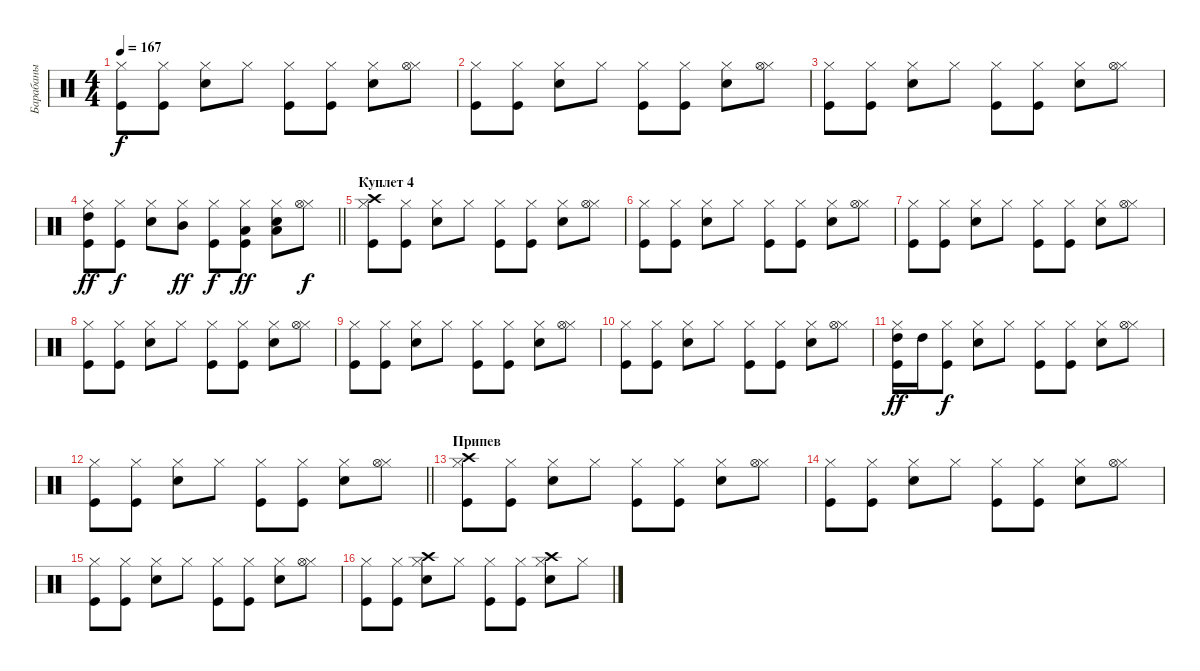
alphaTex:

\track ("Барабаны" "Барабаны") {instrument percussion}
\staff {score}
\articulation defaults
\ts (4 4)
\tempo 167
\clef neutral
\ks c
("Kick (hit)" "Hi-Hat (closed)").8{dy f} ("Kick (hit)" "Hi-Hat (closed)").8 ("Snare (hit) 2" "Hi-Hat (closed)").8 "Hi-Hat (closed)".8 ("Kick (hit)" "Hi-Hat (closed)").8 ("Kick (hit)" "Hi-Hat (closed)").8 ("Snare (hit) 2" "Hi-Hat (closed)").8 ("Hi-Hat (closed)" "Hi-Hat (open)").8 |
("Kick (hit)" "Hi-Hat (closed)").8 ("Kick (hit)" "Hi-Hat (closed)").8 ("Snare (hit) 2" "Hi-Hat (closed)").8 "Hi-Hat (closed)".8 ("Kick (hit)" "Hi-Hat (closed)").8 ("Kick (hit)" "Hi-Hat (closed)").8 ("Snare (hit) 2" "Hi-Hat (closed)").8 ("Hi-Hat (closed)" "Hi-Hat (open)").8 |
("Kick (hit)" "Hi-Hat (closed)").8 ("Kick (hit)" "Hi-Hat (closed)").8 ("Snare (hit) 2" "Hi-Hat (closed)").8 "Hi-Hat (closed)".8 ("Kick (hit)" "Hi-Hat (closed)").8 ("Kick (hit)" "Hi-Hat (closed)").8 ("Snare (hit) 2" "Hi-Hat (closed)").8 ("Hi-Hat (closed)" "Hi-Hat (open)").8 |
\barLineRight lightlight
("Kick (hit)" "Hi-Hat (closed)" "High Tom (hit)").8{dy ff} ("Kick (hit)" "Hi-Hat (closed)").8{dy f} ("Snare (hit) 2" "Hi-Hat (closed)").8 ("Hi-Hat (closed)" "Mid Tom (hit)").8{dy ff} ("Kick (hit)" "Hi-Hat (closed)").8{dy f} ("Kick (hit)" "Hi-Hat (closed)" "Low Tom (hit)").8{dy ff} ("Snare (hit) 2" "Hi-Hat (closed)" "Low Tom (hit)").8 ("Hi-Hat (closed)" "Hi-Hat (open)").8{dy f} |
\section ("" "Куплет 4")
("Kick (hit)" "Hi-Hat (closed)" "Crash high (hit)").8 ("Kick (hit)" "Hi-Hat (closed)").8 ("Snare (hit) 2" "Hi-Hat (closed)").8 "Hi-Hat (closed)".8 ("Kick (hit)" "Hi-Hat (closed)").8 ("Kick (hit)" "Hi-Hat (closed)").8 ("Snare (hit) 2" "Hi-Hat (closed)").8 ("Hi-Hat (closed)" "Hi-Hat (open)").8 |
("Kick (hit)" "Hi-Hat (closed)").8 ("Kick (hit)" "Hi-Hat (closed)").8 ("Snare (hit) 2" "Hi-Hat (closed)").8 "Hi-Hat (closed)".8 ("Kick (hit)" "Hi-Hat (closed)").8 ("Kick (hit)" "Hi-Hat (closed)").8 ("Snare (hit) 2" "Hi-Hat (closed)").8 ("Hi-Hat (closed)" "Hi-Hat (open)").8 |
("Kick (hit)" "Hi-Hat (closed)").8 ("Kick (hit)" "Hi-Hat (closed)").8 ("Snare (hit) 2" "Hi-Hat (closed)").8 "Hi-Hat (closed)".8 ("Kick (hit)" "Hi-Hat (closed)").8 ("Kick (hit)" "Hi-Hat (closed)").8 ("Snare (hit) 2" "Hi-Hat (closed)").8 ("Hi-Hat (closed)" "Hi-Hat (open)").8 |
("Kick (hit)" "Hi-Hat (closed)").8 ("Kick (hit)" "Hi-Hat (closed)").8 ("Snare (hit) 2" "Hi-Hat (closed)").8 "Hi-Hat (closed)".8 ("Kick (hit)" "Hi-Hat (closed)").8 ("Kick (hit)" "Hi-Hat (closed)").8 ("Snare (hit) 2" "Hi-Hat (closed)").8 ("Hi-Hat (closed)" "Hi-Hat (open)").8 |
("Kick (hit)" "Hi-Hat (closed)").8 ("Kick (hit)" "Hi-Hat (closed)").8 ("Snare (hit) 2" "Hi-Hat (closed)").8 "Hi-Hat (closed)".8 ("Kick (hit)" "Hi-Hat (closed)").8 ("Kick (hit)" "Hi-Hat (closed)").8 ("Snare (hit) 2" "Hi-Hat (closed)").8 ("Hi-Hat (closed)" "Hi-Hat (open)").8 |
("Kick (hit)" "Hi-Hat (closed)").8 ("Kick (hit)" "Hi-Hat (closed)").8 ("Snare (hit) 2" "Hi-Hat (closed)").8 "Hi-Hat (closed)".8 ("Kick (hit)" "Hi-Hat (closed)").8 ("Kick (hit)" "Hi-Hat (closed)").8 ("Snare (hit) 2" "Hi-Hat (closed)").8 ("Hi-Hat (closed)" "Hi-Hat (open)").8 |
("Kick (hit)" "Hi-Hat (closed)" "High Tom (hit)").16{dy ff} "High Tom (hit)".16 ("Kick (hit)" "Hi-Hat (closed)").8{dy f} ("Snare (hit) 2" "Hi-Hat (closed)").8 "Hi-Hat (closed)".8 ("Kick (hit)" "Hi-Hat (closed)").8 ("Kick (hit)" "Hi-Hat (closed)").8 ("Snare (hit) 2" "Hi-Hat (closed)").8 ("Hi-Hat (closed)" "Hi-Hat (open)").8 |
\barLineRight lightlight
("Kick (hit)" "Hi-Hat (closed)").8 ("Kick (hit)" "Hi-Hat (closed)").8 ("Snare (hit) 2" "Hi-Hat (closed)").8 "Hi-Hat (closed)".8 ("Kick (hit)" "Hi-Hat (closed)").8 ("Kick (hit)" "Hi-Hat (closed)").8 ("Snare (hit) 2" "Hi-Hat (closed)").8 ("Hi-Hat (closed)" "Hi-Hat (open)").8 |
\section ("" "Припев")
("Kick (hit)" "Hi-Hat (closed)" "Crash high (hit)").8 ("Kick (hit)" "Hi-Hat (closed)").8 ("Snare (hit) 2" "Hi-Hat (closed)").8 "Hi-Hat (closed)".8 ("Kick (hit)" "Hi-Hat (closed)").8 ("Kick (hit)" "Hi-Hat (closed)").8 ("Snare (hit) 2" "Hi-Hat (closed)").8 ("Hi-Hat (closed)" "Hi-Hat (open)").8 |
("Kick (hit)" "Hi-Hat (closed)").8 ("Kick (hit)" "Hi-Hat (closed)").8 ("Snare (hit) 2" "Hi-Hat (closed)").8 "Hi-Hat (closed)".8 ("Kick (hit)" "Hi-Hat (closed)").8 ("Kick (hit)" "Hi-Hat (closed)").8 ("Snare (hit) 2" "Hi-Hat (closed)").8 ("Hi-Hat (closed)" "Hi-Hat (open)").8 |
("Kick (hit)" "Hi-Hat (closed)").8 ("Kick (hit)" "Hi-Hat (closed)").8 ("Snare (hit) 2" "Hi-Hat (closed)").8 "Hi-Hat (closed)".8 ("Kick (hit)" "Hi-Hat (closed)").8 ("Kick (hit)" "Hi-Hat (closed)").8 ("Snare (hit) 2" "Hi-Hat (closed)").8 ("Hi-Hat (closed)" "Hi-Hat (open)").8 |
("Kick (hit)" "Hi-Hat (closed)").8 ("Kick (hit)" "Hi-Hat (closed)").8 ("Snare (hit) 2" "Hi-Hat (closed)" "Crash high (hit)").8 "Hi-Hat (closed)".8 ("Kick (hit)" "Hi-Hat (closed)").8 ("Kick (hit)" "Hi-Hat (closed)").8 ("Snare (hit) 2" "Hi-Hat (closed)" "Crash high (hit)").8 "Hi-Hat (closed)".8
